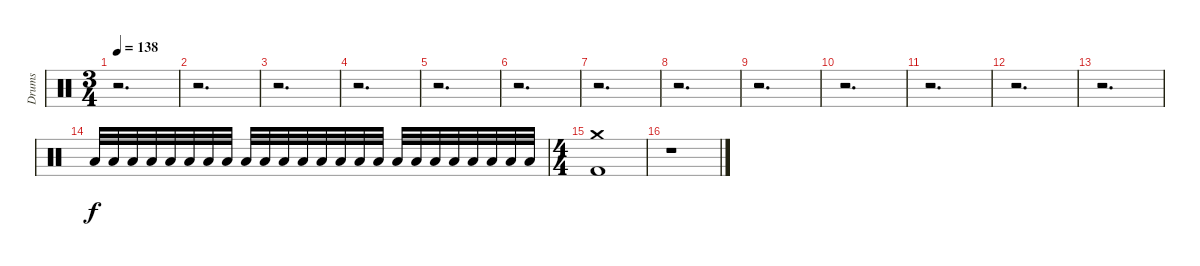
\track ("Drums" "Drums") {instrument percussion}
\staff {score}
\articulation defaults
\ts (3 4)
\tempo 138
\clef neutral
\ks c
r.2{d dy f} |
r.2{d} |
r.2{d} |
r.2{d} |
r.2{d} |
r.2{d} |
r.2{d} |
r.2{d} |
r.2{d} |
r.2{d} |
r.2{d} |
r.2{d} |
r.2{d} |
"Low Tom (hit)".32{volume 0} "Low Tom (hit)".32{volume 1} "Low Tom (hit)".32{volume 1} "Low Tom (hit)".32{volume 2} "Low Tom (hit)".32{volume 3} "Low Tom (hit)".32{volume 3} "Low Tom (hit)".32{volume 4} "Low Tom (hit)".32{volume 4} "Low Tom (hit)".32{volume 5} "Low Tom (hit)".32{volume 6} "Low Tom (hit)".32{volume 6} "Low Tom (hit)".32{volume 7} "Low Tom (hit)".32{volume 8} "Low Tom (hit)".32{volume 8} "Low Tom (hit)".32{volume 9} "Low Tom (hit)".32{volume 10} "Low Tom (hit)".32{volume 10} "Low Tom (hit)".32{volume 11} "Low Tom (hit)".32{volume 12} "Low Tom (hit)".32{volume 12} "Low Tom (hit)".32{volume 13} "Low Tom (hit)".32{volume 14} "Low Tom (hit)".32{volume 14} "Low Tom (hit)".32{volume 15} |
\ts (4 4)
("Crash medium (hit)" "Kick (hit) 2").1{volume 16} |
r.1
